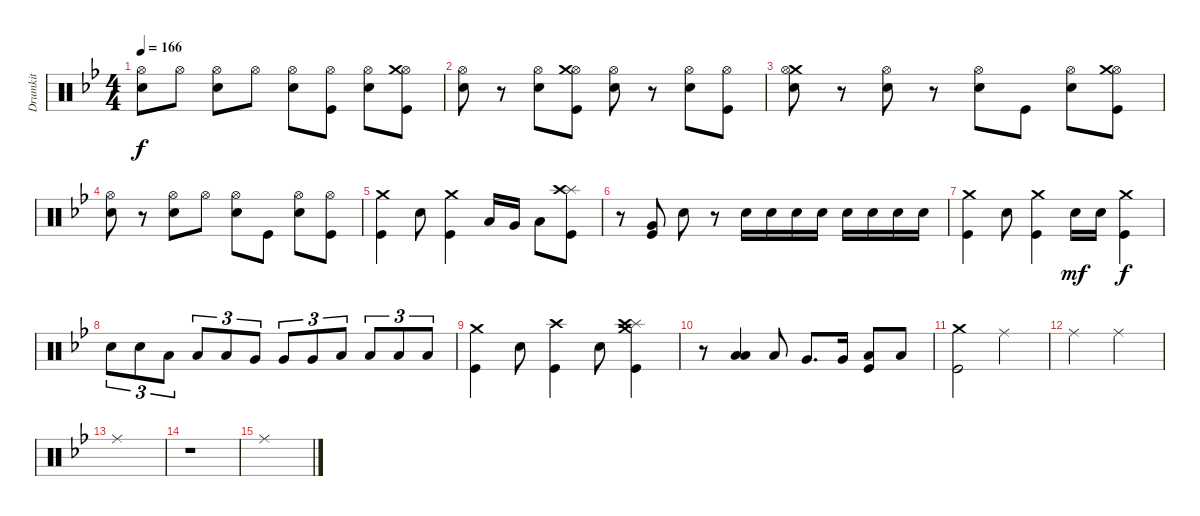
\track ("Drumkit" "Drumkit") {instrument percussion}
\staff {score}
\articulation defaults
\ts (4 4)
\tempo 166
\clef neutral
\ks gminor
("Snare (hit) 2" "Hi-Hat (open)").8{dy f} "Hi-Hat (open)".8 ("Snare (hit) 2" "Hi-Hat (open)").8 "Hi-Hat (open)".8 ("Snare (hit) 2" "Hi-Hat (open)").8 ("Kick (hit)" "Hi-Hat (open)").8 ("Snare (hit) 2" "Hi-Hat (open)").8 ("Hi-Hat (open)" "Crash medium (hit)" "Kick (hit)").8 |
("Snare (hit) 2" "Hi-Hat (open)").8 r.8 ("Snare (hit) 2" "Hi-Hat (open)").8 ("Kick (hit)" "Hi-Hat (open)" "Crash medium (hit)").8 ("Snare (hit) 2" "Hi-Hat (open)").8 r.8 ("Snare (hit) 2" "Hi-Hat (open)").8 ("Kick (hit)" "Hi-Hat (open)").8 |
("Snare (hit) 2" "Crash medium (hit)" "Hi-Hat (open)").8 r.8 ("Snare (hit) 2" "Hi-Hat (open)").8 r.8 ("Snare (hit) 2" "Hi-Hat (open)").8 "Kick (hit)".8 ("Snare (hit) 2" "Hi-Hat (open)").8 ("Kick (hit)" "Hi-Hat (open)" "Crash medium (hit)").8 |
("Snare (hit) 2" "Hi-Hat (open)").8 r.8 ("Snare (hit) 2" "Hi-Hat (open)").8 "Hi-Hat (open)".8 ("Snare (hit) 2" "Hi-Hat (open)").8 "Kick (hit)".8 ("Snare (hit) 2" "Hi-Hat (open)").8 ("Kick (hit)" "Hi-Hat (open)").8 |
("Kick (hit)" "Crash medium (hit)").4 "Snare (hit) 2".8 ("Kick (hit)" "Crash medium (hit)").4 "Low Floor Tom (hit)".16 "Very Low Tom (hit)".16 "Low Floor Tom (hit)".8 ("Kick (hit)" "Splash (hit)" "Crash high (hit)").8 |
r.8 ("Kick (hit)" "Very Low Tom (hit)").8 "Snare (hit) 2".8 r.8 "Snare (hit) 2".16 "Snare (hit) 2".16 "Snare (hit) 2".16 "Snare (hit) 2".16 "Snare (hit) 2".16 "Snare (hit) 2".16 "Snare (hit) 2".16 "Snare (hit) 2".16 |
("Kick (hit)" "Crash medium (hit)").4 "Snare (hit) 2".8 ("Kick (hit)" "Crash medium (hit)").4 "Snare (hit) 2".16{dy mf} "Snare (hit) 2".16 ("Kick (hit)" "Crash medium (hit)").4{dy f} |
"Snare (hit) 2".8{tu (3 2)} "Snare (hit) 2".8{tu (3 2)} "Low Tom (hit)".8{tu (3 2)} "Low Tom (hit)".8{tu (3 2)} "Low Tom (hit)".8{tu (3 2)} "Very Low Tom (hit)".8{tu (3 2)} "Very Low Tom (hit)".8{tu (3 2)} "Very Low Tom (hit)".8{tu (3 2)} "Low Floor Tom (hit)".8{tu (3 2)} "Low Floor Tom (hit)".8{tu (3 2)} "Low Floor Tom (hit)".8{tu (3 2)} "Low Floor Tom (hit)".8{tu (3 2)} |
("Kick (hit)" "Crash medium (hit)").4 "Snare (hit) 2".8 ("Kick (hit)" "Crash high (hit)").4 "Snare (hit) 2".8 ("Kick (hit)" "Crash medium (hit)" "Splash (hit)" "Crash high (hit)").4 |
r.8 ("Low Tom (hit)" "Low Floor Tom (hit)").4 "Low Floor Tom (hit)".8 "Very Low Tom (hit)".8{d} "Very Low Tom (hit)".16 ("Low Floor Tom (hit)" "Kick (hit)").8 "Low Floor Tom (hit)".8 |
("Kick (hit)" "Crash medium (hit)").2 "Ride (middle)".2 |
"Ride (middle)".2 "Ride (middle)".2 |
"Ride (middle)".1 |
r.1 |
"Ride (middle)".1
